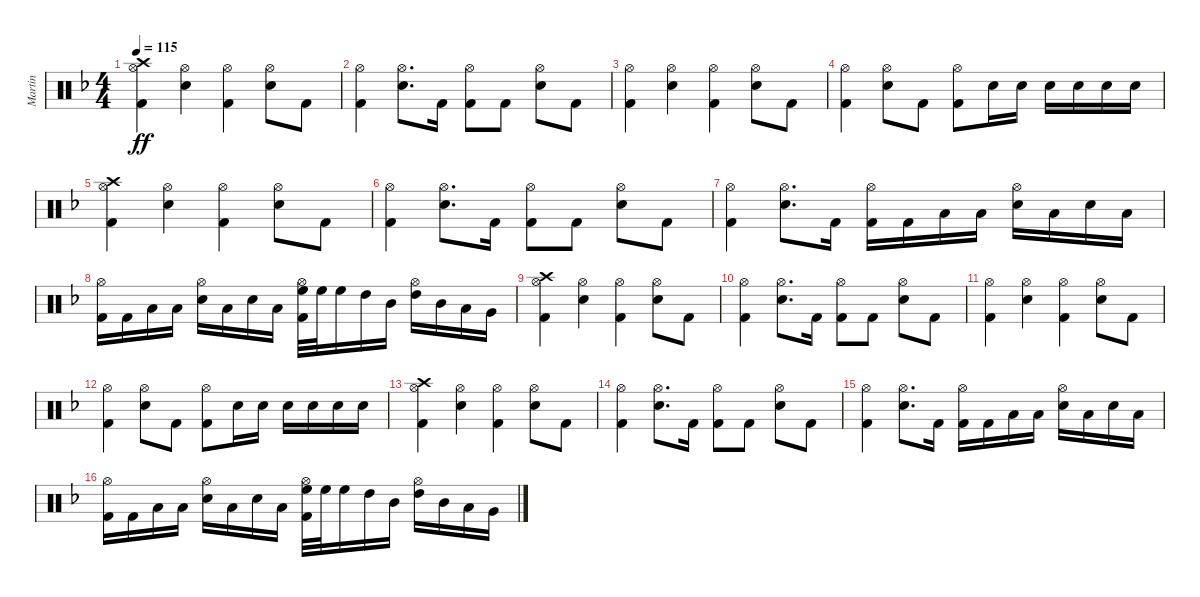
\track ("Martin" "Martin") {instrument percussion}
\staff {score}
\articulation defaults
\ts (4 4)
\tempo 115
\clef neutral
\ks dminor
("Crash high (hit)" "Hi-Hat (open)" "Kick (hit) 2").4{dy ff} ("Hi-Hat (open)" "Electric Snare (hit)").4 ("Hi-Hat (open)" "Kick (hit) 2").4 ("Hi-Hat (open)" "Electric Snare (hit)").8 "Kick (hit) 2".8 |
("Hi-Hat (open)" "Kick (hit) 2").4 ("Hi-Hat (open)" "Electric Snare (hit)").8{d} "Kick (hit) 2".16 ("Hi-Hat (open)" "Kick (hit) 2").8 "Kick (hit) 2".8 ("Hi-Hat (open)" "Electric Snare (hit)").8 "Kick (hit) 2".8 |
("Hi-Hat (open)" "Kick (hit) 2").4 ("Hi-Hat (open)" "Electric Snare (hit)").4 ("Hi-Hat (open)" "Kick (hit) 2").4 ("Hi-Hat (open)" "Electric Snare (hit)").8 "Kick (hit) 2".8 |
("Hi-Hat (open)" "Kick (hit) 2").4 ("Hi-Hat (open)" "Electric Snare (hit)").8 "Kick (hit) 2".8 ("Hi-Hat (open)" "Kick (hit) 2").8 "Electric Snare (hit)".16 "Electric Snare (hit)".16 "Electric Snare (hit)".16 "Electric Snare (hit)".16 "Electric Snare (hit)".16 "Electric Snare (hit)".16 |
("Crash high (hit)" "Hi-Hat (open)" "Kick (hit) 2").4 ("Hi-Hat (open)" "Electric Snare (hit)").4 ("Hi-Hat (open)" "Kick (hit) 2").4 ("Hi-Hat (open)" "Electric Snare (hit)").8 "Kick (hit) 2".8 |
("Hi-Hat (open)" "Kick (hit) 2").4 ("Hi-Hat (open)" "Electric Snare (hit)").8{d} "Kick (hit) 2".16 ("Hi-Hat (open)" "Kick (hit) 2").8 "Kick (hit) 2".8 ("Hi-Hat (open)" "Electric Snare (hit)").8 "Kick (hit) 2".8 |
("Hi-Hat (open)" "Kick (hit) 2").4 ("Hi-Hat (open)" "Electric Snare (hit)").8{d} "Kick (hit) 2".16 ("Hi-Hat (open)" "Kick (hit) 2").16 "Kick (hit) 2".16 "Low Tom (hit)".16 "Low Tom (hit)".16 ("Hi-Hat (open)" "Electric Snare (hit)").16 "Low Tom (hit)".16 "Electric Snare (hit)".16 "Low Tom (hit)".16 |
("Hi-Hat (open)" "Kick (hit) 2").16 "Kick (hit) 2".16 "Low Tom (hit)".16 "Low Tom (hit)".16 ("Hi-Hat (open)" "Electric Snare (hit)").16 "Low Tom (hit)".16 "Electric Snare (hit)".16 "Low Tom (hit)".16 ("Hi-Hat (open)" "High Floor Tom (hit)" "Kick (hit) 2").32 "High Floor Tom (hit)".32 "High Floor Tom (hit)".16 "High Tom (hit)".16 "Mid Tom (hit)".16 ("Hi-Hat (open)" "High Tom (hit)").16 "Mid Tom (hit)".16 "Low Tom (hit)".16 "Very Low Tom (hit)".16 |
("Crash high (hit)" "Hi-Hat (open)" "Kick (hit) 2").4 ("Hi-Hat (open)" "Electric Snare (hit)").4 ("Hi-Hat (open)" "Kick (hit) 2").4 ("Hi-Hat (open)" "Electric Snare (hit)").8 "Kick (hit) 2".8 |
("Hi-Hat (open)" "Kick (hit) 2").4 ("Hi-Hat (open)" "Electric Snare (hit)").8{d} "Kick (hit) 2".16 ("Hi-Hat (open)" "Kick (hit) 2").8 "Kick (hit) 2".8 ("Hi-Hat (open)" "Electric Snare (hit)").8 "Kick (hit) 2".8 |
("Hi-Hat (open)" "Kick (hit) 2").4 ("Hi-Hat (open)" "Electric Snare (hit)").4 ("Hi-Hat (open)" "Kick (hit) 2").4 ("Hi-Hat (open)" "Electric Snare (hit)").8 "Kick (hit) 2".8 |
("Hi-Hat (open)" "Kick (hit) 2").4 ("Hi-Hat (open)" "Electric Snare (hit)").8 "Kick (hit) 2".8 ("Hi-Hat (open)" "Kick (hit) 2").8 "Electric Snare (hit)".16 "Electric Snare (hit)".16 "Electric Snare (hit)".16 "Electric Snare (hit)".16 "Electric Snare (hit)".16 "Electric Snare (hit)".16 |
("Crash high (hit)" "Hi-Hat (open)" "Kick (hit) 2").4 ("Hi-Hat (open)" "Electric Snare (hit)").4 ("Hi-Hat (open)" "Kick (hit) 2").4 ("Hi-Hat (open)" "Electric Snare (hit)").8 "Kick (hit) 2".8 |
("Hi-Hat (open)" "Kick (hit) 2").4 ("Hi-Hat (open)" "Electric Snare (hit)").8{d} "Kick (hit) 2".16 ("Hi-Hat (open)" "Kick (hit) 2").8 "Kick (hit) 2".8 ("Hi-Hat (open)" "Electric Snare (hit)").8 "Kick (hit) 2".8 |
("Hi-Hat (open)" "Kick (hit) 2").4 ("Hi-Hat (open)" "Electric Snare (hit)").8{d} "Kick (hit) 2".16 ("Hi-Hat (open)" "Kick (hit) 2").16 "Kick (hit) 2".16 "Low Tom (hit)".16 "Low Tom (hit)".16 ("Hi-Hat (open)" "Electric Snare (hit)").16 "Low Tom (hit)".16 "Electric Snare (hit)".16 "Low Tom (hit)".16 |
("Hi-Hat (open)" "Kick (hit) 2").16 "Kick (hit) 2".16 "Low Tom (hit)".16 "Low Tom (hit)".16 ("Hi-Hat (open)" "Electric Snare (hit)").16 "Low Tom (hit)".16 "Electric Snare (hit)".16 "Low Tom (hit)".16 ("Hi-Hat (open)" "High Floor Tom (hit)" "Kick (hit) 2").32 "High Floor Tom (hit)".32 "High Floor Tom (hit)".16 "High Tom (hit)".16 "Mid Tom (hit)".16 ("Hi-Hat (open)" "High Tom (hit)").16 "Mid Tom (hit)".16 "Low Tom (hit)".16 "Very Low Tom (hit)".16
